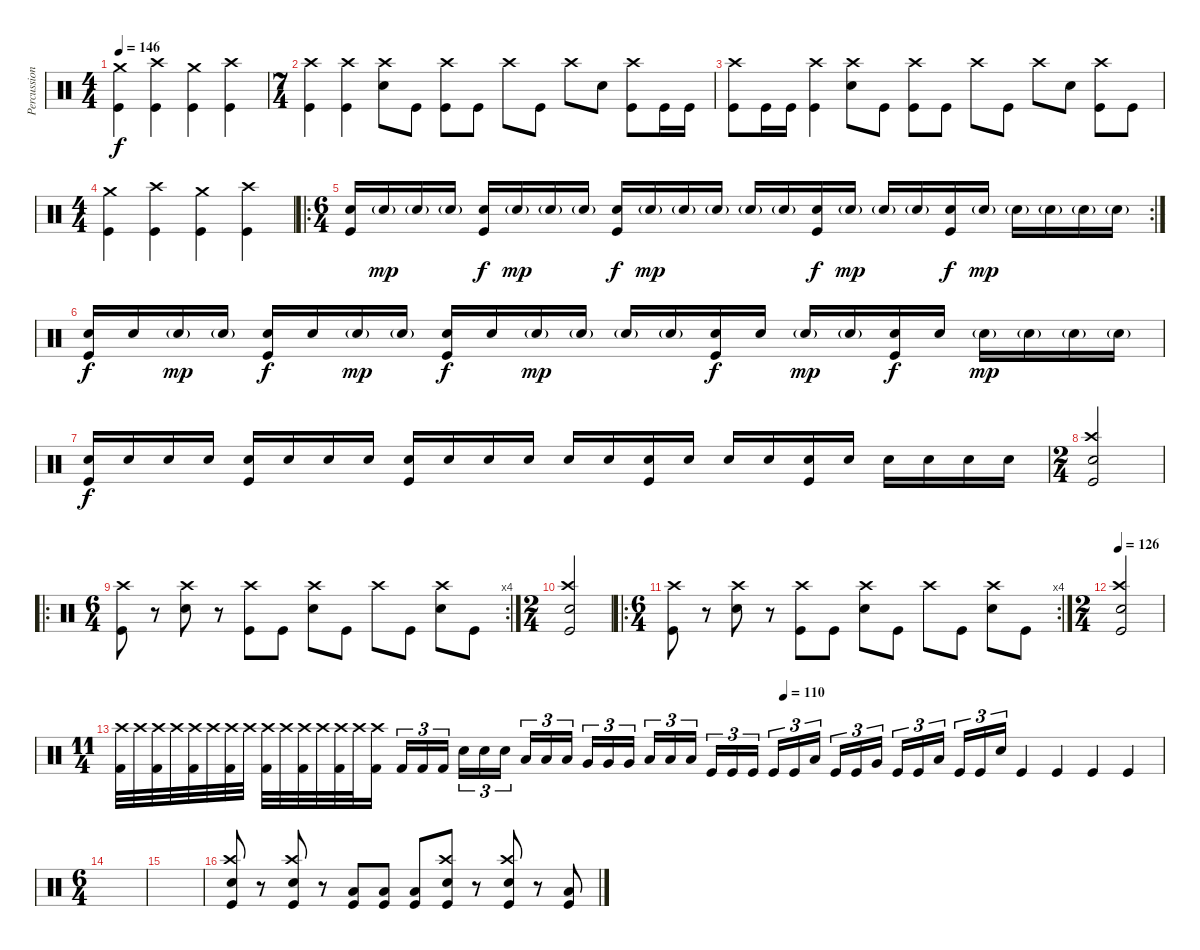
\track ("Percussion" "Percussion") {instrument percussion}
\staff {score}
\articulation defaults
\ts (4 4)
\tempo 146
\clef neutral
\ks c
("Crash medium (hit)" "Kick (hit)").4{dy f} ("Crash high (hit)" "Kick (hit)").4 ("Crash medium (hit)" "Kick (hit)").4 ("Crash high (hit)" "Kick (hit)").4 |
\ts (7 4)
("Crash high (hit)" "Kick (hit)").4 ("Crash high (hit)" "Kick (hit)").4 ("Crash high (hit)" "Snare (hit) 2").8 "Kick (hit)".8 ("Crash high (hit)" "Kick (hit)").8 "Kick (hit)".8 "Crash high (hit)".8 "Kick (hit)".8 "Crash high (hit)".8 "Snare (hit) 2".8 ("Crash high (hit)" "Kick (hit)").8 "Kick (hit)".16 "Kick (hit)".16 |
("Crash high (hit)" "Kick (hit)").8 "Kick (hit)".16 "Kick (hit)".16 ("Crash high (hit)" "Kick (hit)").4 ("Crash high (hit)" "Snare (hit) 2").8 "Kick (hit)".8 ("Crash high (hit)" "Kick (hit)").8 "Kick (hit)".8 "Crash high (hit)".8 "Kick (hit)".8 "Crash high (hit)".8 "Snare (hit) 2".8 ("Crash high (hit)" "Kick (hit)").8 "Kick (hit)".8 |
\ts (4 4)
("Crash medium (hit)" "Kick (hit)").4 ("Crash high (hit)" "Kick (hit)").4 ("Crash medium (hit)" "Kick (hit)").4 ("Crash high (hit)" "Kick (hit)").4 |
\ro
\rc 2
\ts (6 4)
("Snare (hit) 2" "Kick (hit)").16 "Snare (hit) 2"{g}.16{dy mp} "Snare (hit) 2"{g}.16 "Snare (hit) 2"{g}.16 ("Snare (hit) 2" "Kick (hit)").16{dy f} "Snare (hit) 2"{g}.16{dy mp} "Snare (hit) 2"{g}.16 "Snare (hit) 2"{g}.16 ("Snare (hit) 2" "Kick (hit)").16{dy f} "Snare (hit) 2"{g}.16{dy mp} "Snare (hit) 2"{g}.16 "Snare (hit) 2"{g}.16 "Snare (hit) 2"{g}.16 "Snare (hit) 2"{g}.16 ("Snare (hit) 2" "Kick (hit)").16{dy f} "Snare (hit) 2"{g}.16{dy mp} "Snare (hit) 2"{g}.16 "Snare (hit) 2"{g}.16 ("Snare (hit) 2" "Kick (hit)").16{dy f} "Snare (hit) 2"{g}.16{dy mp} "Snare (hit) 2"{g}.16 "Snare (hit) 2"{g}.16 "Snare (hit) 2"{g}.16 "Snare (hit) 2"{g}.16 |
("Snare (hit) 2" "Kick (hit)").16{dy f} "Snare (hit) 2".16 "Snare (hit) 2"{g}.16{dy mp} "Snare (hit) 2"{g}.16 ("Snare (hit) 2" "Kick (hit)").16{dy f} "Snare (hit) 2".16 "Snare (hit) 2"{g}.16{dy mp} "Snare (hit) 2"{g}.16 ("Snare (hit) 2" "Kick (hit)").16{dy f} "Snare (hit) 2".16 "Snare (hit) 2"{g}.16{dy mp} "Snare (hit) 2"{g}.16 "Snare (hit) 2"{g}.16 "Snare (hit) 2"{g}.16 ("Snare (hit) 2" "Kick (hit)").16{dy f} "Snare (hit) 2".16 "Snare (hit) 2"{g}.16{dy mp} "Snare (hit) 2"{g}.16 ("Snare (hit) 2" "Kick (hit)").16{dy f} "Snare (hit) 2".16 "Snare (hit) 2"{g}.16{dy mp} "Snare (hit) 2"{g}.16 "Snare (hit) 2"{g}.16 "Snare (hit) 2"{g}.16 |
("Snare (hit) 2" "Kick (hit)").16{dy f} "Snare (hit) 2".16 "Snare (hit) 2".16 "Snare (hit) 2".16 ("Snare (hit) 2" "Kick (hit)").16 "Snare (hit) 2".16 "Snare (hit) 2".16 "Snare (hit) 2".16 ("Snare (hit) 2" "Kick (hit)").16 "Snare (hit) 2".16 "Snare (hit) 2".16 "Snare (hit) 2".16 "Snare (hit) 2".16 "Snare (hit) 2".16 ("Snare (hit) 2" "Kick (hit)").16 "Snare (hit) 2".16 "Snare (hit) 2".16 "Snare (hit) 2".16 ("Snare (hit) 2" "Kick (hit)").16 "Snare (hit) 2".16 "Snare (hit) 2".16 "Snare (hit) 2".16 "Snare (hit) 2".16 "Snare (hit) 2".16 |
\ts (2 4)
("Crash high (hit)" "Snare (hit) 2" "Kick (hit)").2 |
\ro
\rc 4
\ts (6 4)
("Crash high (hit)" "Kick (hit)").8 r.8 ("Crash high (hit)" "Snare (hit) 2").8 r.8 ("Crash high (hit)" "Kick (hit)").8 "Kick (hit)".8 ("Crash high (hit)" "Snare (hit) 2").8 "Kick (hit)".8 "Crash high (hit)".8 "Kick (hit)".8 ("Crash high (hit)" "Snare (hit) 2").8 "Kick (hit)".8 |
\ts (2 4)
("Crash high (hit)" "Snare (hit) 2" "Kick (hit)").2 |
\ro
\rc 4
\ts (6 4)
("Crash high (hit)" "Kick (hit)").8 r.8 ("Crash high (hit)" "Snare (hit) 2").8 r.8 ("Crash high (hit)" "Kick (hit)").8 "Kick (hit)".8 ("Crash high (hit)" "Snare (hit) 2").8 "Kick (hit)".8 "Crash high (hit)".8 "Kick (hit)".8 ("Crash high (hit)" "Snare (hit) 2").8 "Kick (hit)".8 |
\ts (2 4)
\tempo 126
("Crash high (hit)" "Snare (hit) 2" "Kick (hit)").2 |
\ts (11 4)
\tempo (110 0.6363636363636364)
("Crash high (hit)" "Kick (hit) 2").32 "Crash high (hit)".32 ("Crash high (hit)" "Kick (hit) 2").32 "Crash high (hit)".32 ("Crash high (hit)" "Kick (hit) 2").32 "Crash high (hit)".32 ("Crash high (hit)" "Kick (hit) 2").32 "Crash high (hit)".32 ("Crash high (hit)" "Kick (hit) 2").32 "Crash high (hit)".32 ("Crash high (hit)" "Kick (hit) 2").32 "Crash high (hit)".32 ("Crash high (hit)" "Kick (hit) 2").32 "Crash high (hit)".32 ("Crash high (hit)" "Kick (hit) 2").16 "Kick (hit) 2".16{tu (3 2)} "Kick (hit) 2".16{tu (3 2)} "Kick (hit) 2".16{tu (3 2) beam splitsecondary} "Snare (hit) 2".16{tu (3 2)} "Snare (hit) 2".16{tu (3 2)} "Snare (hit) 2".16{tu (3 2)} "Low Tom (hit)".16{tu (3 2)} "Low Tom (hit)".16{tu (3 2)} "Low Tom (hit)".16{tu (3 2) beam splitsecondary} "Very Low Tom (hit)".16{tu (3 2)} "Very Low Tom (hit)".16{tu (3 2)} "Very Low Tom (hit)".16{tu (3 2)} "Low Floor Tom (hit)".16{tu (3 2)} "Low Floor Tom (hit)".16{tu (3 2)} "Low Floor Tom (hit)".16{tu (3 2) beam splitsecondary} "Kick (hit)".16{tu (3 2)} "Kick (hit)".16{tu (3 2)} "Kick (hit)".16{tu (3 2)} "Kick (hit)".16{tu (3 2)} "Kick (hit)".16{tu (3 2)} "Low Tom (hit)".16{tu (3 2) beam splitsecondary} "Kick (hit)".16{tu (3 2)} "Kick (hit)".16{tu (3 2)} "Very Low Tom (hit)".16{tu (3 2)} "Kick (hit)".16{tu (3 2)} "Kick (hit)".16{tu (3 2)} "Low Floor Tom (hit)".16{tu (3 2) beam splitsecondary} "Kick (hit)".16{tu (3 2)} "Kick (hit)".16{tu (3 2)} "Snare (hit) 2".16{tu (3 2)} "Kick (hit)".4 "Kick (hit)".4 "Kick (hit)".4 "Kick (hit)".4 |
\ts (6 4)
|
|
("Crash high (hit)" "Snare (hit) 2" "Kick (hit)").8 r.8 ("Crash high (hit)" "Snare (hit) 2" "Kick (hit)").8 r.8 ("Low Floor Tom (hit)" "Kick (hit)").8 ("Low Floor Tom (hit)" "Kick (hit)").8 ("Low Floor Tom (hit)" "Kick (hit)").8 ("Crash high (hit)" "Snare (hit) 2" "Kick (hit)").8 r.8 ("Crash high (hit)" "Snare (hit) 2" "Kick (hit)").8 r.8 ("Low Floor Tom (hit)" "Kick (hit)").8
